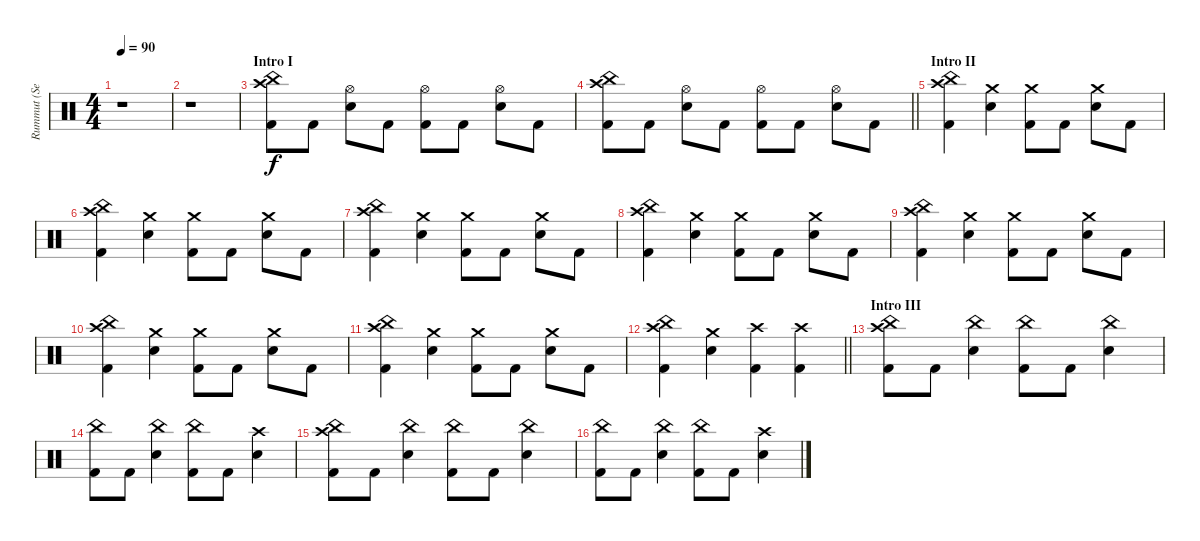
\track ("Rummut (Seppo Pohjolainen)" "Rummut (Se") {instrument percussion}
\staff {score}
\articulation defaults
\ts (4 4)
\tempo 90
\clef neutral
\ks c
r.1{dy f} |
r.1 |
\section ("" "Intro I")
("China (hit)" "Crash high (hit)" "Kick (hit) 2").8 "Kick (hit) 2".8 ("Hi-Hat (open)" "Snare (hit) 2").8 "Kick (hit) 2".8 ("Hi-Hat (open)" "Kick (hit) 2").8 "Kick (hit) 2".8 ("Hi-Hat (open)" "Snare (hit) 2").8 "Kick (hit) 2".8 |
\barLineRight lightlight
("China (hit)" "Crash high (hit)" "Kick (hit) 2").8 "Kick (hit) 2".8 ("Hi-Hat (open)" "Snare (hit) 2").8 "Kick (hit) 2".8 ("Hi-Hat (open)" "Kick (hit) 2").8 "Kick (hit) 2".8 ("Hi-Hat (open)" "Snare (hit) 2").8 "Kick (hit) 2".8 |
\section ("" "Intro II")
("China (hit)" "Crash high (hit)" "Kick (hit) 2").4 ("Crash medium (hit)" "Snare (hit) 2").4 ("Crash medium (hit)" "Kick (hit) 2").8 "Kick (hit) 2".8 ("Crash medium (hit)" "Snare (hit) 2").8 "Kick (hit) 2".8 |
("China (hit)" "Crash high (hit)" "Kick (hit) 2").4 ("Crash medium (hit)" "Snare (hit) 2").4 ("Crash medium (hit)" "Kick (hit) 2").8 "Kick (hit) 2".8 ("Crash medium (hit)" "Snare (hit) 2").8 "Kick (hit) 2".8 |
("China (hit)" "Crash high (hit)" "Kick (hit) 2").4 ("Crash medium (hit)" "Snare (hit) 2").4 ("Crash medium (hit)" "Kick (hit) 2").8 "Kick (hit) 2".8 ("Crash medium (hit)" "Snare (hit) 2").8 "Kick (hit) 2".8 |
("China (hit)" "Crash high (hit)" "Kick (hit) 2").4 ("Crash medium (hit)" "Snare (hit) 2").4 ("Crash medium (hit)" "Kick (hit) 2").8 "Kick (hit) 2".8 ("Crash medium (hit)" "Snare (hit) 2").8 "Kick (hit) 2".8 |
("China (hit)" "Crash high (hit)" "Kick (hit) 2").4 ("Crash medium (hit)" "Snare (hit) 2").4 ("Crash medium (hit)" "Kick (hit) 2").8 "Kick (hit) 2".8 ("Crash medium (hit)" "Snare (hit) 2").8 "Kick (hit) 2".8 |
("China (hit)" "Crash high (hit)" "Kick (hit) 2").4 ("Crash medium (hit)" "Snare (hit) 2").4 ("Crash medium (hit)" "Kick (hit) 2").8 "Kick (hit) 2".8 ("Crash medium (hit)" "Snare (hit) 2").8 "Kick (hit) 2".8 |
("China (hit)" "Crash high (hit)" "Kick (hit) 2").4 ("Crash medium (hit)" "Snare (hit) 2").4 ("Crash medium (hit)" "Kick (hit) 2").8 "Kick (hit) 2".8 ("Crash medium (hit)" "Snare (hit) 2").8 "Kick (hit) 2".8 |
\barLineRight lightlight
("China (hit)" "Crash high (hit)" "Kick (hit) 2").4 ("Crash medium (hit)" "Snare (hit) 2").4 ("Crash high (hit)" "Kick (hit) 2").4 ("Crash high (hit)" "Kick (hit) 2").4 |
\section ("" "Intro III")
("China (hit)" "Crash high (hit)" "Kick (hit) 2").8 "Kick (hit) 2".8 ("China (hit)" "Snare (hit) 2").4 ("China (hit)" "Kick (hit) 2").8 "Kick (hit) 2".8 ("China (hit)" "Snare (hit) 2").4 |
("China (hit)" "Kick (hit) 2").8 "Kick (hit) 2".8 ("China (hit)" "Snare (hit) 2").4 ("China (hit)" "Kick (hit) 2").8 "Kick (hit) 2".8 ("Crash high (hit)" "Snare (hit) 2").4 |
("China (hit)" "Crash high (hit)" "Kick (hit) 2").8 "Kick (hit) 2".8 ("China (hit)" "Snare (hit) 2").4 ("China (hit)" "Kick (hit) 2").8 "Kick (hit) 2".8 ("China (hit)" "Snare (hit) 2").4 |
("China (hit)" "Kick (hit) 2").8 "Kick (hit) 2".8 ("China (hit)" "Snare (hit) 2").4 ("China (hit)" "Kick (hit) 2").8 "Kick (hit) 2".8 ("Crash high (hit)" "Snare (hit) 2").4
